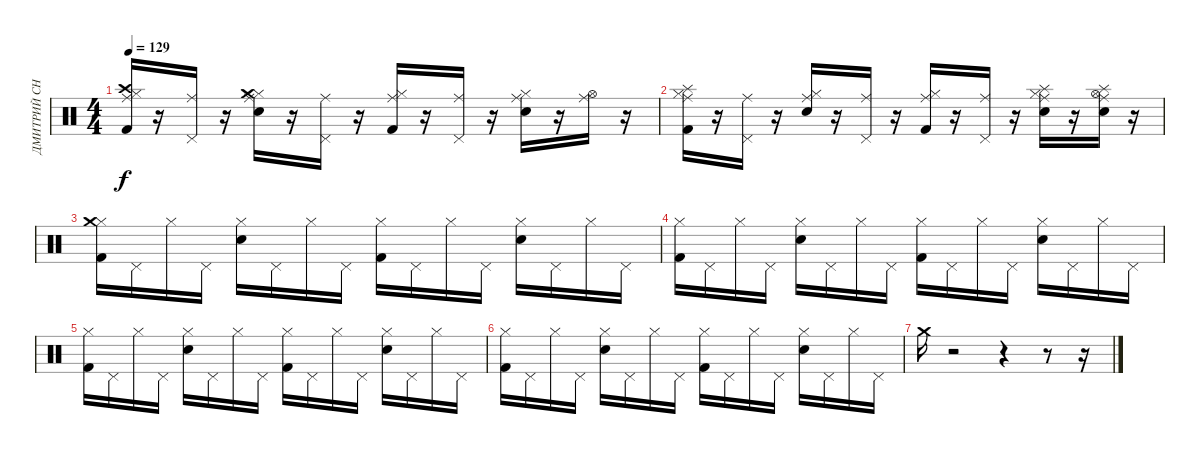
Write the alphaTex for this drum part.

\track ("ДМИТРИЙ СНЭЙК" "ДМИТРИЙ СН") {instrument percussion}
\staff {score}
\articulation defaults
\ts (4 4)
\tempo 129
\clef neutral
\ks c
("Ride (middle)" "Crash high (hit)" "Hi-Hat (closed)" "Kick (hit) 2").16{dy f} r.16 ("Pedal Hi-Hat (hit)" "Ride (middle)").16 r.16 ("Electric Snare (hit)" "Hi-Hat (closed)" "Crash medium (hit)" "Ride (middle)").16 r.16 ("Ride (middle)" "Pedal Hi-Hat (hit)").16 r.16 ("Ride (middle)" "Hi-Hat (closed)" "Kick (hit) 2").16 r.16 ("Ride (middle)" "Pedal Hi-Hat (hit)").16 r.16 ("Ride (middle)" "Electric Snare (hit)" "Hi-Hat (closed)").16 r.16 ("Ride (middle)" "Hi-Hat (open)").16 r.16 |
("Kick (hit) 2" "Hi-Hat (closed)" "Splash (hit)" "Ride (middle)").16 r.16 ("Ride (middle)" "Pedal Hi-Hat (hit)").16 r.16 ("Electric Snare (hit)" "Hi-Hat (closed)" "Ride (middle)").16 r.16 ("Ride (middle)" "Pedal Hi-Hat (hit)").16 r.16 ("Ride (middle)" "Hi-Hat (closed)" "Kick (hit) 2").16 r.16 ("Pedal Hi-Hat (hit)" "Ride (middle)").16 r.16 ("Ride (middle)" "Splash (hit)" "Electric Snare (hit)" "Hi-Hat (closed)").16 r.16 ("Ride (middle)" "Splash (hit)" "Electric Snare (hit)" "Hi-Hat (open)").16 r.16 |
("Hi-Hat (closed)" "Kick (hit) 2" "Crash medium (hit)").16 "Pedal Hi-Hat (hit)".16 "Hi-Hat (closed)".16 "Pedal Hi-Hat (hit)".16 ("Hi-Hat (closed)" "Electric Snare (hit)").16 "Pedal Hi-Hat (hit)".16 "Hi-Hat (closed)".16 "Pedal Hi-Hat (hit)".16 ("Hi-Hat (closed)" "Kick (hit) 2").16 "Pedal Hi-Hat (hit)".16 "Hi-Hat (closed)".16 "Pedal Hi-Hat (hit)".16 ("Hi-Hat (closed)" "Electric Snare (hit)").16 "Pedal Hi-Hat (hit)".16 "Hi-Hat (closed)".16 "Pedal Hi-Hat (hit)".16 |
("Hi-Hat (closed)" "Kick (hit) 2").16 "Pedal Hi-Hat (hit)".16 "Hi-Hat (closed)".16 "Pedal Hi-Hat (hit)".16 ("Electric Snare (hit)" "Hi-Hat (closed)").16 "Pedal Hi-Hat (hit)".16 "Hi-Hat (closed)".16 "Pedal Hi-Hat (hit)".16 ("Hi-Hat (closed)" "Kick (hit) 2").16 "Pedal Hi-Hat (hit)".16 "Hi-Hat (closed)".16 "Pedal Hi-Hat (hit)".16 ("Electric Snare (hit)" "Hi-Hat (closed)").16 "Pedal Hi-Hat (hit)".16 "Hi-Hat (closed)".16 "Pedal Hi-Hat (hit)".16 |
("Hi-Hat (closed)" "Kick (hit) 2").16 "Pedal Hi-Hat (hit)".16 "Hi-Hat (closed)".16 "Pedal Hi-Hat (hit)".16 ("Electric Snare (hit)" "Hi-Hat (closed)").16 "Pedal Hi-Hat (hit)".16 "Hi-Hat (closed)".16 "Pedal Hi-Hat (hit)".16 ("Hi-Hat (closed)" "Kick (hit) 2").16 "Pedal Hi-Hat (hit)".16 "Hi-Hat (closed)".16 "Pedal Hi-Hat (hit)".16 ("Electric Snare (hit)" "Hi-Hat (closed)").16 "Pedal Hi-Hat (hit)".16 "Hi-Hat (closed)".16 "Pedal Hi-Hat (hit)".16 |
("Hi-Hat (closed)" "Kick (hit) 2").16 "Pedal Hi-Hat (hit)".16 "Hi-Hat (closed)".16 "Pedal Hi-Hat (hit)".16 ("Electric Snare (hit)" "Hi-Hat (closed)").16 "Pedal Hi-Hat (hit)".16 "Hi-Hat (closed)".16 "Pedal Hi-Hat (hit)".16 ("Hi-Hat (closed)" "Kick (hit) 2").16 "Pedal Hi-Hat (hit)".16 "Hi-Hat (closed)".16 "Pedal Hi-Hat (hit)".16 ("Electric Snare (hit)" "Hi-Hat (closed)").16 "Pedal Hi-Hat (hit)".16 "Hi-Hat (closed)".16 "Pedal Hi-Hat (hit)".16 |
"Crash medium (hit)".16 r.2 r.4 r.8 r.16
